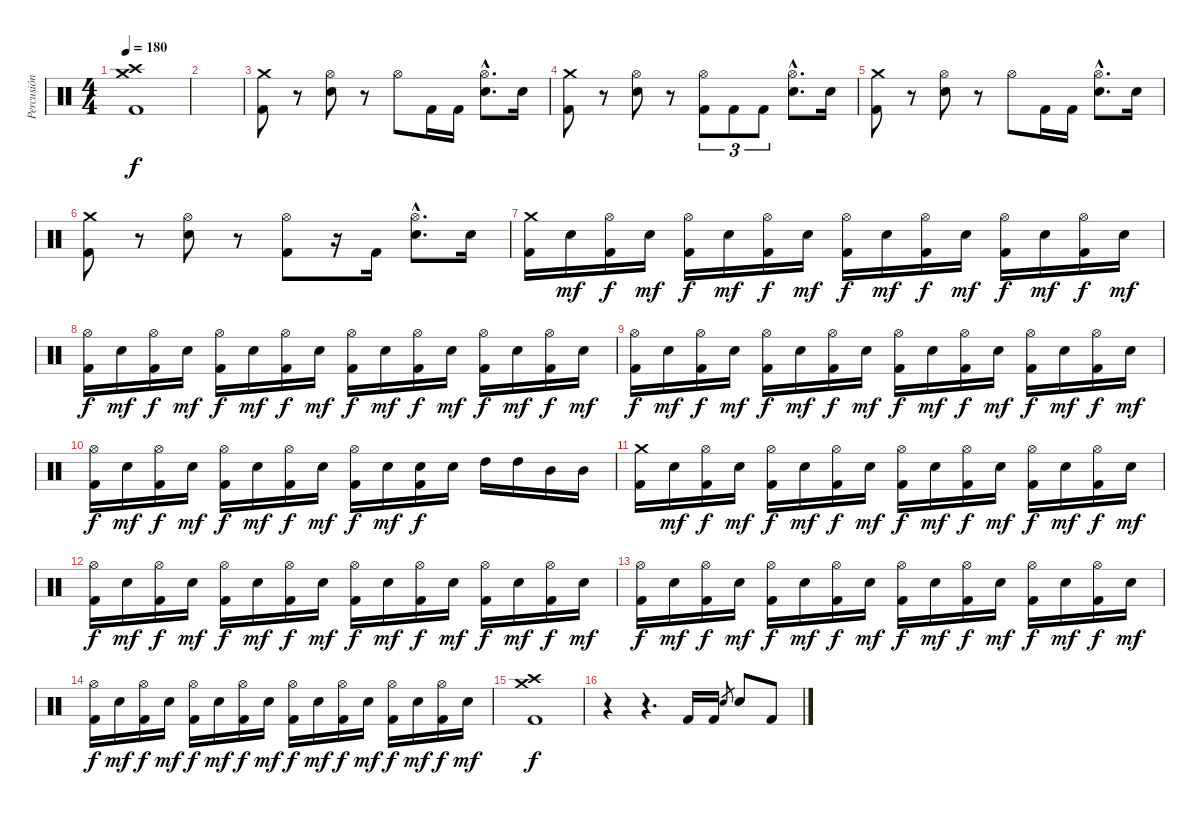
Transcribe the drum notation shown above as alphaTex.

\track ("Percusión" "Percusión") {instrument percussion}
\staff {score}
\articulation defaults
\ts (4 4)
\tempo 180
\clef neutral
\ks c
("Crash medium (hit)" "Crash high (hit)" "Kick (hit) 2").1{dy f} |
|
("Crash medium (hit)" "Kick (hit) 2").8 r.8 ("Hi-Hat (open)" "Electric Snare (hit)").8 r.8 "Hi-Hat (open)".8 "Kick (hit) 2".16 "Kick (hit) 2".16 ("Hi-Hat (open)"{hac} "Electric Snare (hit)"{hac}).8{d} "Electric Snare (hit)".16 |
("Crash medium (hit)" "Kick (hit) 2").8 r.8 ("Hi-Hat (open)" "Electric Snare (hit)").8 r.8 ("Hi-Hat (open)" "Kick (hit) 2").8{tu (3 2)} "Kick (hit) 2".8{tu (3 2)} "Kick (hit) 2".8{tu (3 2)} ("Hi-Hat (open)"{hac} "Electric Snare (hit)"{hac}).8{d} "Electric Snare (hit)".16 |
("Crash medium (hit)" "Kick (hit) 2").8 r.8 ("Hi-Hat (open)" "Electric Snare (hit)").8 r.8 "Hi-Hat (open)".8 "Kick (hit) 2".16 "Kick (hit) 2".16 ("Hi-Hat (open)"{hac} "Electric Snare (hit)"{hac}).8{d} "Electric Snare (hit)".16 |
("Crash medium (hit)" "Kick (hit) 2").8 r.8 ("Hi-Hat (open)" "Electric Snare (hit)").8 r.8 ("Hi-Hat (open)" "Kick (hit) 2").8 r.16 "Kick (hit) 2".16 ("Hi-Hat (open)"{hac} "Electric Snare (hit)"{hac}).8{d} "Electric Snare (hit)".16 |
("Crash medium (hit)" "Kick (hit) 2").16 "Electric Snare (hit)".16{dy mf} ("Hi-Hat (open)" "Kick (hit) 2").16{dy f} "Electric Snare (hit)".16{dy mf} ("Hi-Hat (open)" "Kick (hit) 2").16{dy f} "Electric Snare (hit)".16{dy mf} ("Hi-Hat (open)" "Kick (hit) 2").16{dy f} "Electric Snare (hit)".16{dy mf} ("Hi-Hat (open)" "Kick (hit) 2").16{dy f} "Electric Snare (hit)".16{dy mf} ("Hi-Hat (open)" "Kick (hit) 2").16{dy f} "Electric Snare (hit)".16{dy mf} ("Hi-Hat (open)" "Kick (hit) 2").16{dy f} "Electric Snare (hit)".16{dy mf} ("Hi-Hat (open)" "Kick (hit) 2").16{dy f} "Electric Snare (hit)".16{dy mf} |
("Hi-Hat (open)" "Kick (hit) 2").16{dy f} "Electric Snare (hit)".16{dy mf} ("Hi-Hat (open)" "Kick (hit) 2").16{dy f} "Electric Snare (hit)".16{dy mf} ("Hi-Hat (open)" "Kick (hit) 2").16{dy f} "Electric Snare (hit)".16{dy mf} ("Hi-Hat (open)" "Kick (hit) 2").16{dy f} "Electric Snare (hit)".16{dy mf} ("Hi-Hat (open)" "Kick (hit) 2").16{dy f} "Electric Snare (hit)".16{dy mf} ("Hi-Hat (open)" "Kick (hit) 2").16{dy f} "Electric Snare (hit)".16{dy mf} ("Hi-Hat (open)" "Kick (hit) 2").16{dy f} "Electric Snare (hit)".16{dy mf} ("Hi-Hat (open)" "Kick (hit) 2").16{dy f} "Electric Snare (hit)".16{dy mf} |
("Hi-Hat (open)" "Kick (hit) 2").16{dy f} "Electric Snare (hit)".16{dy mf} ("Hi-Hat (open)" "Kick (hit) 2").16{dy f} "Electric Snare (hit)".16{dy mf} ("Hi-Hat (open)" "Kick (hit) 2").16{dy f} "Electric Snare (hit)".16{dy mf} ("Hi-Hat (open)" "Kick (hit) 2").16{dy f} "Electric Snare (hit)".16{dy mf} ("Hi-Hat (open)" "Kick (hit) 2").16{dy f} "Electric Snare (hit)".16{dy mf} ("Hi-Hat (open)" "Kick (hit) 2").16{dy f} "Electric Snare (hit)".16{dy mf} ("Hi-Hat (open)" "Kick (hit) 2").16{dy f} "Electric Snare (hit)".16{dy mf} ("Hi-Hat (open)" "Kick (hit) 2").16{dy f} "Electric Snare (hit)".16{dy mf} |
("Hi-Hat (open)" "Kick (hit) 2").16{dy f} "Electric Snare (hit)".16{dy mf} ("Hi-Hat (open)" "Kick (hit) 2").16{dy f} "Electric Snare (hit)".16{dy mf} ("Hi-Hat (open)" "Kick (hit) 2").16{dy f} "Electric Snare (hit)".16{dy mf} ("Hi-Hat (open)" "Kick (hit) 2").16{dy f} "Electric Snare (hit)".16{dy mf} ("Hi-Hat (open)" "Kick (hit) 2").16{dy f} "Electric Snare (hit)".16{dy mf} ("Electric Snare (hit)" "Kick (hit) 2").16{dy f} "Electric Snare (hit)".16 "High Tom (hit)".16 "High Tom (hit)".16 "Mid Tom (hit)".16 "Mid Tom (hit)".16 |
("Crash medium (hit)" "Kick (hit) 2").16 "Electric Snare (hit)".16{dy mf} ("Hi-Hat (open)" "Kick (hit) 2").16{dy f} "Electric Snare (hit)".16{dy mf} ("Hi-Hat (open)" "Kick (hit) 2").16{dy f} "Electric Snare (hit)".16{dy mf} ("Hi-Hat (open)" "Kick (hit) 2").16{dy f} "Electric Snare (hit)".16{dy mf} ("Hi-Hat (open)" "Kick (hit) 2").16{dy f} "Electric Snare (hit)".16{dy mf} ("Hi-Hat (open)" "Kick (hit) 2").16{dy f} "Electric Snare (hit)".16{dy mf} ("Hi-Hat (open)" "Kick (hit) 2").16{dy f} "Electric Snare (hit)".16{dy mf} ("Hi-Hat (open)" "Kick (hit) 2").16{dy f} "Electric Snare (hit)".16{dy mf} |
("Hi-Hat (open)" "Kick (hit) 2").16{dy f} "Electric Snare (hit)".16{dy mf} ("Hi-Hat (open)" "Kick (hit) 2").16{dy f} "Electric Snare (hit)".16{dy mf} ("Hi-Hat (open)" "Kick (hit) 2").16{dy f} "Electric Snare (hit)".16{dy mf} ("Hi-Hat (open)" "Kick (hit) 2").16{dy f} "Electric Snare (hit)".16{dy mf} ("Hi-Hat (open)" "Kick (hit) 2").16{dy f} "Electric Snare (hit)".16{dy mf} ("Hi-Hat (open)" "Kick (hit) 2").16{dy f} "Electric Snare (hit)".16{dy mf} ("Hi-Hat (open)" "Kick (hit) 2").16{dy f} "Electric Snare (hit)".16{dy mf} ("Hi-Hat (open)" "Kick (hit) 2").16{dy f} "Electric Snare (hit)".16{dy mf} |
("Hi-Hat (open)" "Kick (hit) 2").16{dy f} "Electric Snare (hit)".16{dy mf} ("Hi-Hat (open)" "Kick (hit) 2").16{dy f} "Electric Snare (hit)".16{dy mf} ("Hi-Hat (open)" "Kick (hit) 2").16{dy f} "Electric Snare (hit)".16{dy mf} ("Hi-Hat (open)" "Kick (hit) 2").16{dy f} "Electric Snare (hit)".16{dy mf} ("Hi-Hat (open)" "Kick (hit) 2").16{dy f} "Electric Snare (hit)".16{dy mf} ("Hi-Hat (open)" "Kick (hit) 2").16{dy f} "Electric Snare (hit)".16{dy mf} ("Hi-Hat (open)" "Kick (hit) 2").16{dy f} "Electric Snare (hit)".16{dy mf} ("Hi-Hat (open)" "Kick (hit) 2").16{dy f} "Electric Snare (hit)".16{dy mf} |
("Hi-Hat (open)" "Kick (hit) 2").16{dy f} "Electric Snare (hit)".16{dy mf} ("Hi-Hat (open)" "Kick (hit) 2").16{dy f} "Electric Snare (hit)".16{dy mf} ("Hi-Hat (open)" "Kick (hit) 2").16{dy f} "Electric Snare (hit)".16{dy mf} ("Hi-Hat (open)" "Kick (hit) 2").16{dy f} "Electric Snare (hit)".16{dy mf} ("Hi-Hat (open)" "Kick (hit) 2").16{dy f} "Electric Snare (hit)".16{dy mf} ("Hi-Hat (open)" "Kick (hit) 2").16{dy f} "Electric Snare (hit)".16{dy mf} ("Hi-Hat (open)" "Kick (hit) 2").16{dy f} "Electric Snare (hit)".16{dy mf} ("Hi-Hat (open)" "Kick (hit) 2").16{dy f} "Electric Snare (hit)".16{dy mf} |
("Crash high (hit)" "Crash medium (hit)" "Kick (hit) 2").1{dy f} |
r.4 r.4{d} "Kick (hit) 2".16 "Kick (hit) 2".16 "Electric Snare (hit)".8{gr} "Electric Snare (hit)".8 "Kick (hit) 2".8
